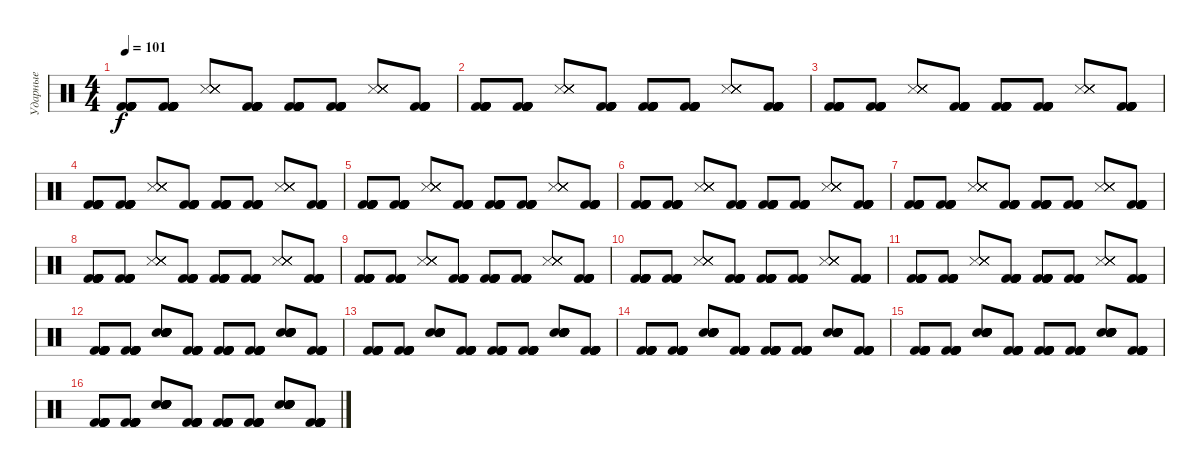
\track ("Ударные" "Ударные") {instrument percussion}
\staff {score}
\articulation defaults
\ts (4 4)
\tempo 101
\clef neutral
\ks c
("Kick (hit) 2" "Kick (hit) 2" "Kick (hit) 2" "Kick (hit) 2" "Kick (hit) 2" "Kick (hit) 2").8{dy f} ("Kick (hit) 2" "Kick (hit) 2" "Kick (hit) 2" "Kick (hit) 2" "Kick (hit) 2" "Kick (hit) 2").8 ("Snare (side stick) 3" "Snare (side stick) 3" "Snare (side stick) 3" "Snare (side stick) 3" "Snare (side stick) 3" "Snare (side stick) 3").8 ("Kick (hit) 2" "Kick (hit) 2" "Kick (hit) 2" "Kick (hit) 2" "Kick (hit) 2" "Kick (hit) 2").8 ("Kick (hit) 2" "Kick (hit) 2" "Kick (hit) 2" "Kick (hit) 2" "Kick (hit) 2" "Kick (hit) 2").8 ("Kick (hit) 2" "Kick (hit) 2" "Kick (hit) 2" "Kick (hit) 2" "Kick (hit) 2" "Kick (hit) 2").8 ("Snare (side stick) 3" "Snare (side stick) 3" "Snare (side stick) 3" "Snare (side stick) 3" "Snare (side stick) 3" "Snare (side stick) 3").8 ("Kick (hit) 2" "Kick (hit) 2" "Kick (hit) 2" "Kick (hit) 2" "Kick (hit) 2" "Kick (hit) 2").8 |
("Kick (hit) 2" "Kick (hit) 2" "Kick (hit) 2" "Kick (hit) 2" "Kick (hit) 2" "Kick (hit) 2").8 ("Kick (hit) 2" "Kick (hit) 2" "Kick (hit) 2" "Kick (hit) 2" "Kick (hit) 2" "Kick (hit) 2").8 ("Snare (side stick) 3" "Snare (side stick) 3" "Snare (side stick) 3" "Snare (side stick) 3" "Snare (side stick) 3" "Snare (side stick) 3").8 ("Kick (hit) 2" "Kick (hit) 2" "Kick (hit) 2" "Kick (hit) 2" "Kick (hit) 2" "Kick (hit) 2").8 ("Kick (hit) 2" "Kick (hit) 2" "Kick (hit) 2" "Kick (hit) 2" "Kick (hit) 2" "Kick (hit) 2").8 ("Kick (hit) 2" "Kick (hit) 2" "Kick (hit) 2" "Kick (hit) 2" "Kick (hit) 2" "Kick (hit) 2").8 ("Snare (side stick) 3" "Snare (side stick) 3" "Snare (side stick) 3" "Snare (side stick) 3" "Snare (side stick) 3" "Snare (side stick) 3").8 ("Kick (hit) 2" "Kick (hit) 2" "Kick (hit) 2" "Kick (hit) 2" "Kick (hit) 2" "Kick (hit) 2").8 |
("Kick (hit) 2" "Kick (hit) 2" "Kick (hit) 2" "Kick (hit) 2" "Kick (hit) 2" "Kick (hit) 2").8 ("Kick (hit) 2" "Kick (hit) 2" "Kick (hit) 2" "Kick (hit) 2" "Kick (hit) 2" "Kick (hit) 2").8 ("Snare (side stick) 3" "Snare (side stick) 3" "Snare (side stick) 3" "Snare (side stick) 3" "Snare (side stick) 3" "Snare (side stick) 3").8 ("Kick (hit) 2" "Kick (hit) 2" "Kick (hit) 2" "Kick (hit) 2" "Kick (hit) 2" "Kick (hit) 2").8 ("Kick (hit) 2" "Kick (hit) 2" "Kick (hit) 2" "Kick (hit) 2" "Kick (hit) 2" "Kick (hit) 2").8 ("Kick (hit) 2" "Kick (hit) 2" "Kick (hit) 2" "Kick (hit) 2" "Kick (hit) 2" "Kick (hit) 2").8 ("Snare (side stick) 3" "Snare (side stick) 3" "Snare (side stick) 3" "Snare (side stick) 3" "Snare (side stick) 3" "Snare (side stick) 3").8 ("Kick (hit) 2" "Kick (hit) 2" "Kick (hit) 2" "Kick (hit) 2" "Kick (hit) 2" "Kick (hit) 2").8 |
("Kick (hit) 2" "Kick (hit) 2" "Kick (hit) 2" "Kick (hit) 2" "Kick (hit) 2" "Kick (hit) 2").8 ("Kick (hit) 2" "Kick (hit) 2" "Kick (hit) 2" "Kick (hit) 2" "Kick (hit) 2" "Kick (hit) 2").8 ("Snare (side stick) 3" "Snare (side stick) 3" "Snare (side stick) 3" "Snare (side stick) 3" "Snare (side stick) 3" "Snare (side stick) 3").8 ("Kick (hit) 2" "Kick (hit) 2" "Kick (hit) 2" "Kick (hit) 2" "Kick (hit) 2" "Kick (hit) 2").8 ("Kick (hit) 2" "Kick (hit) 2" "Kick (hit) 2" "Kick (hit) 2" "Kick (hit) 2" "Kick (hit) 2").8 ("Kick (hit) 2" "Kick (hit) 2" "Kick (hit) 2" "Kick (hit) 2" "Kick (hit) 2" "Kick (hit) 2").8 ("Snare (side stick) 3" "Snare (side stick) 3" "Snare (side stick) 3" "Snare (side stick) 3" "Snare (side stick) 3" "Snare (side stick) 3").8 ("Kick (hit) 2" "Kick (hit) 2" "Kick (hit) 2" "Kick (hit) 2" "Kick (hit) 2" "Kick (hit) 2").8 |
("Kick (hit) 2" "Kick (hit) 2" "Kick (hit) 2" "Kick (hit) 2" "Kick (hit) 2" "Kick (hit) 2").8 ("Kick (hit) 2" "Kick (hit) 2" "Kick (hit) 2" "Kick (hit) 2" "Kick (hit) 2" "Kick (hit) 2").8 ("Snare (side stick) 3" "Snare (side stick) 3" "Snare (side stick) 3" "Snare (side stick) 3" "Snare (side stick) 3" "Snare (side stick) 3").8 ("Kick (hit) 2" "Kick (hit) 2" "Kick (hit) 2" "Kick (hit) 2" "Kick (hit) 2" "Kick (hit) 2").8 ("Kick (hit) 2" "Kick (hit) 2" "Kick (hit) 2" "Kick (hit) 2" "Kick (hit) 2" "Kick (hit) 2").8 ("Kick (hit) 2" "Kick (hit) 2" "Kick (hit) 2" "Kick (hit) 2" "Kick (hit) 2" "Kick (hit) 2").8 ("Snare (side stick) 3" "Snare (side stick) 3" "Snare (side stick) 3" "Snare (side stick) 3" "Snare (side stick) 3" "Snare (side stick) 3").8 ("Kick (hit) 2" "Kick (hit) 2" "Kick (hit) 2" "Kick (hit) 2" "Kick (hit) 2" "Kick (hit) 2").8 |
("Kick (hit) 2" "Kick (hit) 2" "Kick (hit) 2" "Kick (hit) 2" "Kick (hit) 2" "Kick (hit) 2").8 ("Kick (hit) 2" "Kick (hit) 2" "Kick (hit) 2" "Kick (hit) 2" "Kick (hit) 2" "Kick (hit) 2").8 ("Snare (side stick) 3" "Snare (side stick) 3" "Snare (side stick) 3" "Snare (side stick) 3" "Snare (side stick) 3" "Snare (side stick) 3").8 ("Kick (hit) 2" "Kick (hit) 2" "Kick (hit) 2" "Kick (hit) 2" "Kick (hit) 2" "Kick (hit) 2").8 ("Kick (hit) 2" "Kick (hit) 2" "Kick (hit) 2" "Kick (hit) 2" "Kick (hit) 2" "Kick (hit) 2").8 ("Kick (hit) 2" "Kick (hit) 2" "Kick (hit) 2" "Kick (hit) 2" "Kick (hit) 2" "Kick (hit) 2").8 ("Snare (side stick) 3" "Snare (side stick) 3" "Snare (side stick) 3" "Snare (side stick) 3" "Snare (side stick) 3" "Snare (side stick) 3").8 ("Kick (hit) 2" "Kick (hit) 2" "Kick (hit) 2" "Kick (hit) 2" "Kick (hit) 2" "Kick (hit) 2").8 |
("Kick (hit) 2" "Kick (hit) 2" "Kick (hit) 2" "Kick (hit) 2" "Kick (hit) 2" "Kick (hit) 2").8 ("Kick (hit) 2" "Kick (hit) 2" "Kick (hit) 2" "Kick (hit) 2" "Kick (hit) 2" "Kick (hit) 2").8 ("Snare (side stick) 3" "Snare (side stick) 3" "Snare (side stick) 3" "Snare (side stick) 3" "Snare (side stick) 3" "Snare (side stick) 3").8 ("Kick (hit) 2" "Kick (hit) 2" "Kick (hit) 2" "Kick (hit) 2" "Kick (hit) 2" "Kick (hit) 2").8 ("Kick (hit) 2" "Kick (hit) 2" "Kick (hit) 2" "Kick (hit) 2" "Kick (hit) 2" "Kick (hit) 2").8 ("Kick (hit) 2" "Kick (hit) 2" "Kick (hit) 2" "Kick (hit) 2" "Kick (hit) 2" "Kick (hit) 2").8 ("Snare (side stick) 3" "Snare (side stick) 3" "Snare (side stick) 3" "Snare (side stick) 3" "Snare (side stick) 3" "Snare (side stick) 3").8 ("Kick (hit) 2" "Kick (hit) 2" "Kick (hit) 2" "Kick (hit) 2" "Kick (hit) 2" "Kick (hit) 2").8 |
("Kick (hit) 2" "Kick (hit) 2" "Kick (hit) 2" "Kick (hit) 2" "Kick (hit) 2" "Kick (hit) 2").8 ("Kick (hit) 2" "Kick (hit) 2" "Kick (hit) 2" "Kick (hit) 2" "Kick (hit) 2" "Kick (hit) 2").8 ("Snare (side stick) 3" "Snare (side stick) 3" "Snare (side stick) 3" "Snare (side stick) 3" "Snare (side stick) 3" "Snare (side stick) 3").8 ("Kick (hit) 2" "Kick (hit) 2" "Kick (hit) 2" "Kick (hit) 2" "Kick (hit) 2" "Kick (hit) 2").8 ("Kick (hit) 2" "Kick (hit) 2" "Kick (hit) 2" "Kick (hit) 2" "Kick (hit) 2" "Kick (hit) 2").8 ("Kick (hit) 2" "Kick (hit) 2" "Kick (hit) 2" "Kick (hit) 2" "Kick (hit) 2" "Kick (hit) 2").8 ("Snare (side stick) 3" "Snare (side stick) 3" "Snare (side stick) 3" "Snare (side stick) 3" "Snare (side stick) 3" "Snare (side stick) 3").8 ("Kick (hit) 2" "Kick (hit) 2" "Kick (hit) 2" "Kick (hit) 2" "Kick (hit) 2" "Kick (hit) 2").8 |
("Kick (hit) 2" "Kick (hit) 2" "Kick (hit) 2" "Kick (hit) 2" "Kick (hit) 2" "Kick (hit) 2").8 ("Kick (hit) 2" "Kick (hit) 2" "Kick (hit) 2" "Kick (hit) 2" "Kick (hit) 2" "Kick (hit) 2").8 ("Snare (side stick) 3" "Snare (side stick) 3" "Snare (side stick) 3" "Snare (side stick) 3" "Snare (side stick) 3" "Snare (side stick) 3").8 ("Kick (hit) 2" "Kick (hit) 2" "Kick (hit) 2" "Kick (hit) 2" "Kick (hit) 2" "Kick (hit) 2").8 ("Kick (hit) 2" "Kick (hit) 2" "Kick (hit) 2" "Kick (hit) 2" "Kick (hit) 2" "Kick (hit) 2").8 ("Kick (hit) 2" "Kick (hit) 2" "Kick (hit) 2" "Kick (hit) 2" "Kick (hit) 2" "Kick (hit) 2").8 ("Snare (side stick) 3" "Snare (side stick) 3" "Snare (side stick) 3" "Snare (side stick) 3" "Snare (side stick) 3" "Snare (side stick) 3").8 ("Kick (hit) 2" "Kick (hit) 2" "Kick (hit) 2" "Kick (hit) 2" "Kick (hit) 2" "Kick (hit) 2").8 |
("Kick (hit) 2" "Kick (hit) 2" "Kick (hit) 2" "Kick (hit) 2" "Kick (hit) 2" "Kick (hit) 2").8 ("Kick (hit) 2" "Kick (hit) 2" "Kick (hit) 2" "Kick (hit) 2" "Kick (hit) 2" "Kick (hit) 2").8 ("Snare (side stick) 3" "Snare (side stick) 3" "Snare (side stick) 3" "Snare (side stick) 3" "Snare (side stick) 3" "Snare (side stick) 3").8 ("Kick (hit) 2" "Kick (hit) 2" "Kick (hit) 2" "Kick (hit) 2" "Kick (hit) 2" "Kick (hit) 2").8 ("Kick (hit) 2" "Kick (hit) 2" "Kick (hit) 2" "Kick (hit) 2" "Kick (hit) 2" "Kick (hit) 2").8 ("Kick (hit) 2" "Kick (hit) 2" "Kick (hit) 2" "Kick (hit) 2" "Kick (hit) 2" "Kick (hit) 2").8 ("Snare (side stick) 3" "Snare (side stick) 3" "Snare (side stick) 3" "Snare (side stick) 3" "Snare (side stick) 3" "Snare (side stick) 3").8 ("Kick (hit) 2" "Kick (hit) 2" "Kick (hit) 2" "Kick (hit) 2" "Kick (hit) 2" "Kick (hit) 2").8 |
("Kick (hit) 2" "Kick (hit) 2" "Kick (hit) 2" "Kick (hit) 2" "Kick (hit) 2" "Kick (hit) 2").8 ("Kick (hit) 2" "Kick (hit) 2" "Kick (hit) 2" "Kick (hit) 2" "Kick (hit) 2" "Kick (hit) 2").8 ("Snare (side stick) 3" "Snare (side stick) 3" "Snare (side stick) 3" "Snare (side stick) 3" "Snare (side stick) 3" "Snare (side stick) 3").8 ("Kick (hit) 2" "Kick (hit) 2" "Kick (hit) 2" "Kick (hit) 2" "Kick (hit) 2" "Kick (hit) 2").8 ("Kick (hit) 2" "Kick (hit) 2" "Kick (hit) 2" "Kick (hit) 2" "Kick (hit) 2" "Kick (hit) 2").8 ("Kick (hit) 2" "Kick (hit) 2" "Kick (hit) 2" "Kick (hit) 2" "Kick (hit) 2" "Kick (hit) 2").8 ("Snare (side stick) 3" "Snare (side stick) 3" "Snare (side stick) 3" "Snare (side stick) 3" "Snare (side stick) 3" "Snare (side stick) 3").8 ("Kick (hit) 2" "Kick (hit) 2" "Kick (hit) 2" "Kick (hit) 2" "Kick (hit) 2" "Kick (hit) 2").8 |
("Kick (hit) 2" "Kick (hit) 2" "Kick (hit) 2" "Kick (hit) 2" "Kick (hit) 2" "Kick (hit) 2").8 ("Kick (hit) 2" "Kick (hit) 2" "Kick (hit) 2" "Kick (hit) 2" "Kick (hit) 2" "Kick (hit) 2").8 ("Snare (hit) 2" "Snare (hit) 2" "Snare (hit) 2" "Snare (hit) 2" "Snare (hit) 2" "Snare (hit) 2").8 ("Kick (hit) 2" "Kick (hit) 2" "Kick (hit) 2" "Kick (hit) 2" "Kick (hit) 2" "Kick (hit) 2").8 ("Kick (hit) 2" "Kick (hit) 2" "Kick (hit) 2" "Kick (hit) 2" "Kick (hit) 2" "Kick (hit) 2").8 ("Kick (hit) 2" "Kick (hit) 2" "Kick (hit) 2" "Kick (hit) 2" "Kick (hit) 2" "Kick (hit) 2").8 ("Snare (hit) 2" "Snare (hit) 2" "Snare (hit) 2" "Snare (hit) 2" "Snare (hit) 2" "Snare (hit) 2").8 ("Kick (hit) 2" "Kick (hit) 2" "Kick (hit) 2" "Kick (hit) 2" "Kick (hit) 2" "Kick (hit) 2").8 |
("Kick (hit) 2" "Kick (hit) 2" "Kick (hit) 2" "Kick (hit) 2" "Kick (hit) 2" "Kick (hit) 2").8 ("Kick (hit) 2" "Kick (hit) 2" "Kick (hit) 2" "Kick (hit) 2" "Kick (hit) 2" "Kick (hit) 2").8 ("Snare (hit) 2" "Snare (hit) 2" "Snare (hit) 2" "Snare (hit) 2" "Snare (hit) 2" "Snare (hit) 2").8 ("Kick (hit) 2" "Kick (hit) 2" "Kick (hit) 2" "Kick (hit) 2" "Kick (hit) 2" "Kick (hit) 2").8 ("Kick (hit) 2" "Kick (hit) 2" "Kick (hit) 2" "Kick (hit) 2" "Kick (hit) 2" "Kick (hit) 2").8 ("Kick (hit) 2" "Kick (hit) 2" "Kick (hit) 2" "Kick (hit) 2" "Kick (hit) 2" "Kick (hit) 2").8 ("Snare (hit) 2" "Snare (hit) 2" "Snare (hit) 2" "Snare (hit) 2" "Snare (hit) 2" "Snare (hit) 2").8 ("Kick (hit) 2" "Kick (hit) 2" "Kick (hit) 2" "Kick (hit) 2" "Kick (hit) 2" "Kick (hit) 2").8 |
("Kick (hit) 2" "Kick (hit) 2" "Kick (hit) 2" "Kick (hit) 2" "Kick (hit) 2" "Kick (hit) 2").8 ("Kick (hit) 2" "Kick (hit) 2" "Kick (hit) 2" "Kick (hit) 2" "Kick (hit) 2" "Kick (hit) 2").8 ("Snare (hit) 2" "Snare (hit) 2" "Snare (hit) 2" "Snare (hit) 2" "Snare (hit) 2" "Snare (hit) 2").8 ("Kick (hit) 2" "Kick (hit) 2" "Kick (hit) 2" "Kick (hit) 2" "Kick (hit) 2" "Kick (hit) 2").8 ("Kick (hit) 2" "Kick (hit) 2" "Kick (hit) 2" "Kick (hit) 2" "Kick (hit) 2" "Kick (hit) 2").8 ("Kick (hit) 2" "Kick (hit) 2" "Kick (hit) 2" "Kick (hit) 2" "Kick (hit) 2" "Kick (hit) 2").8 ("Snare (hit) 2" "Snare (hit) 2" "Snare (hit) 2" "Snare (hit) 2" "Snare (hit) 2" "Snare (hit) 2").8 ("Kick (hit) 2" "Kick (hit) 2" "Kick (hit) 2" "Kick (hit) 2" "Kick (hit) 2" "Kick (hit) 2").8 |
("Kick (hit) 2" "Kick (hit) 2" "Kick (hit) 2" "Kick (hit) 2" "Kick (hit) 2" "Kick (hit) 2").8 ("Kick (hit) 2" "Kick (hit) 2" "Kick (hit) 2" "Kick (hit) 2" "Kick (hit) 2" "Kick (hit) 2").8 ("Snare (hit) 2" "Snare (hit) 2" "Snare (hit) 2" "Snare (hit) 2" "Snare (hit) 2" "Snare (hit) 2").8 ("Kick (hit) 2" "Kick (hit) 2" "Kick (hit) 2" "Kick (hit) 2" "Kick (hit) 2" "Kick (hit) 2").8 ("Kick (hit) 2" "Kick (hit) 2" "Kick (hit) 2" "Kick (hit) 2" "Kick (hit) 2" "Kick (hit) 2").8 ("Kick (hit) 2" "Kick (hit) 2" "Kick (hit) 2" "Kick (hit) 2" "Kick (hit) 2" "Kick (hit) 2").8 ("Snare (hit) 2" "Snare (hit) 2" "Snare (hit) 2" "Snare (hit) 2" "Snare (hit) 2" "Snare (hit) 2").8 ("Kick (hit) 2" "Kick (hit) 2" "Kick (hit) 2" "Kick (hit) 2" "Kick (hit) 2" "Kick (hit) 2").8 |
("Kick (hit) 2" "Kick (hit) 2" "Kick (hit) 2" "Kick (hit) 2" "Kick (hit) 2" "Kick (hit) 2").8 ("Kick (hit) 2" "Kick (hit) 2" "Kick (hit) 2" "Kick (hit) 2" "Kick (hit) 2" "Kick (hit) 2").8 ("Snare (hit) 2" "Snare (hit) 2" "Snare (hit) 2" "Snare (hit) 2" "Snare (hit) 2" "Snare (hit) 2").8 ("Kick (hit) 2" "Kick (hit) 2" "Kick (hit) 2" "Kick (hit) 2" "Kick (hit) 2" "Kick (hit) 2").8 ("Kick (hit) 2" "Kick (hit) 2" "Kick (hit) 2" "Kick (hit) 2" "Kick (hit) 2" "Kick (hit) 2").8 ("Kick (hit) 2" "Kick (hit) 2" "Kick (hit) 2" "Kick (hit) 2" "Kick (hit) 2" "Kick (hit) 2").8 ("Snare (hit) 2" "Snare (hit) 2" "Snare (hit) 2" "Snare (hit) 2" "Snare (hit) 2" "Snare (hit) 2").8 ("Kick (hit) 2" "Kick (hit) 2" "Kick (hit) 2" "Kick (hit) 2" "Kick (hit) 2" "Kick (hit) 2").8
